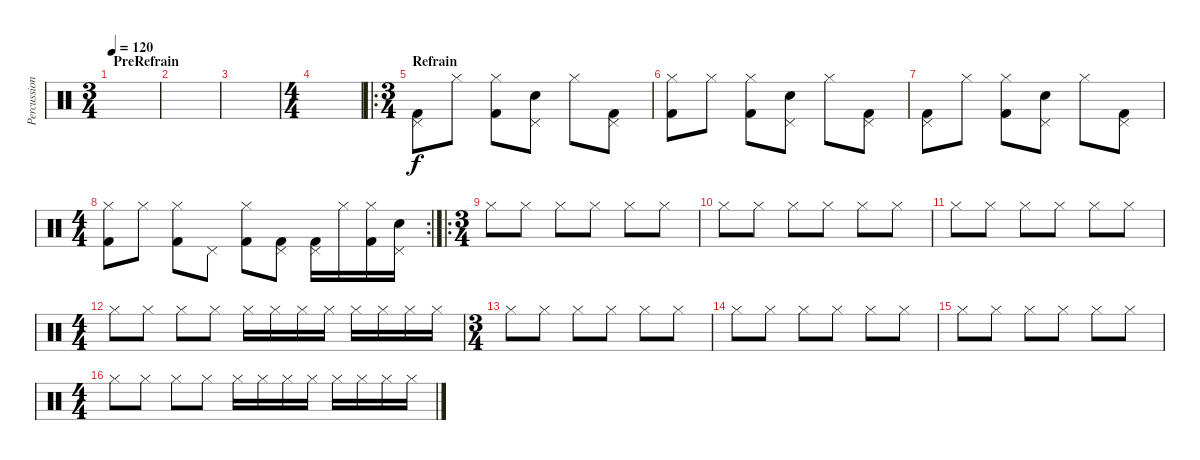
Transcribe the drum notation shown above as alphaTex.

\track ("Percussions" "Percussion") {instrument percussion}
\staff {score}
\articulation defaults
\ts (3 4)
\section ("" "PreRefrain")
\tempo 120
\clef neutral
\ks c
|
|
|
\ts (4 4)
|
\ro
\ts (3 4)
\section ("" "Refrain")
("Kick (hit) 2" "Pedal Hi-Hat (hit)").8 "Hi-Hat (closed)".8 ("Kick (hit) 2" "Hi-Hat (closed)").8 ("Snare (hit) 2" "Pedal Hi-Hat (hit)").8 "Hi-Hat (closed)".8 ("Kick (hit) 2" "Pedal Hi-Hat (hit)").8 |
("Kick (hit) 2" "Hi-Hat (closed)").8 "Hi-Hat (closed)".8 ("Kick (hit) 2" "Hi-Hat (closed)").8 ("Snare (hit) 2" "Pedal Hi-Hat (hit)").8 "Hi-Hat (closed)".8 ("Kick (hit) 2" "Pedal Hi-Hat (hit)").8 |
("Kick (hit) 2" "Pedal Hi-Hat (hit)").8 "Hi-Hat (closed)".8 ("Kick (hit) 2" "Hi-Hat (closed)").8 ("Snare (hit) 2" "Pedal Hi-Hat (hit)").8 "Hi-Hat (closed)".8 ("Kick (hit) 2" "Pedal Hi-Hat (hit)").8 |
\rc 2
\ts (4 4)
("Kick (hit) 2" "Hi-Hat (closed)").8 "Hi-Hat (closed)".8 ("Kick (hit) 2" "Hi-Hat (closed)").8 "Pedal Hi-Hat (hit)".8 ("Kick (hit) 2" "Hi-Hat (closed)").8 ("Kick (hit) 2" "Pedal Hi-Hat (hit)").8 ("Kick (hit) 2" "Pedal Hi-Hat (hit)").16 "Hi-Hat (closed)".16 ("Kick (hit) 2" "Hi-Hat (closed)").16 ("Snare (hit) 2" "Pedal Hi-Hat (hit)").16 |
\ro
\ts (3 4)
"Hi-Hat (closed)".8 "Hi-Hat (closed)".8 "Hi-Hat (closed)".8 "Hi-Hat (closed)".8 "Hi-Hat (closed)".8 "Hi-Hat (closed)".8 |
"Hi-Hat (closed)".8 "Hi-Hat (closed)".8 "Hi-Hat (closed)".8 "Hi-Hat (closed)".8 "Hi-Hat (closed)".8 "Hi-Hat (closed)".8 |
"Hi-Hat (closed)".8 "Hi-Hat (closed)".8 "Hi-Hat (closed)".8 "Hi-Hat (closed)".8 "Hi-Hat (closed)".8 "Hi-Hat (closed)".8 |
\ts (4 4)
"Hi-Hat (closed)".8 "Hi-Hat (closed)".8 "Hi-Hat (closed)".8 "Hi-Hat (closed)".8 "Hi-Hat (closed)".16 "Hi-Hat (closed)".16 "Hi-Hat (closed)".16 "Hi-Hat (closed)".16 "Hi-Hat (closed)".16 "Hi-Hat (closed)".16 "Hi-Hat (closed)".16 "Hi-Hat (closed)".16 |
\ts (3 4)
"Hi-Hat (closed)".8 "Hi-Hat (closed)".8 "Hi-Hat (closed)".8 "Hi-Hat (closed)".8 "Hi-Hat (closed)".8 "Hi-Hat (closed)".8 |
"Hi-Hat (closed)".8 "Hi-Hat (closed)".8 "Hi-Hat (closed)".8 "Hi-Hat (closed)".8 "Hi-Hat (closed)".8 "Hi-Hat (closed)".8 |
"Hi-Hat (closed)".8 "Hi-Hat (closed)".8 "Hi-Hat (closed)".8 "Hi-Hat (closed)".8 "Hi-Hat (closed)".8 "Hi-Hat (closed)".8 |
\ts (4 4)
"Hi-Hat (closed)".8 "Hi-Hat (closed)".8 "Hi-Hat (closed)".8 "Hi-Hat (closed)".8 "Hi-Hat (closed)".16 "Hi-Hat (closed)".16 "Hi-Hat (closed)".16 "Hi-Hat (closed)".16 "Hi-Hat (closed)".16 "Hi-Hat (closed)".16 "Hi-Hat (closed)".16 "Hi-Hat (closed)".16
